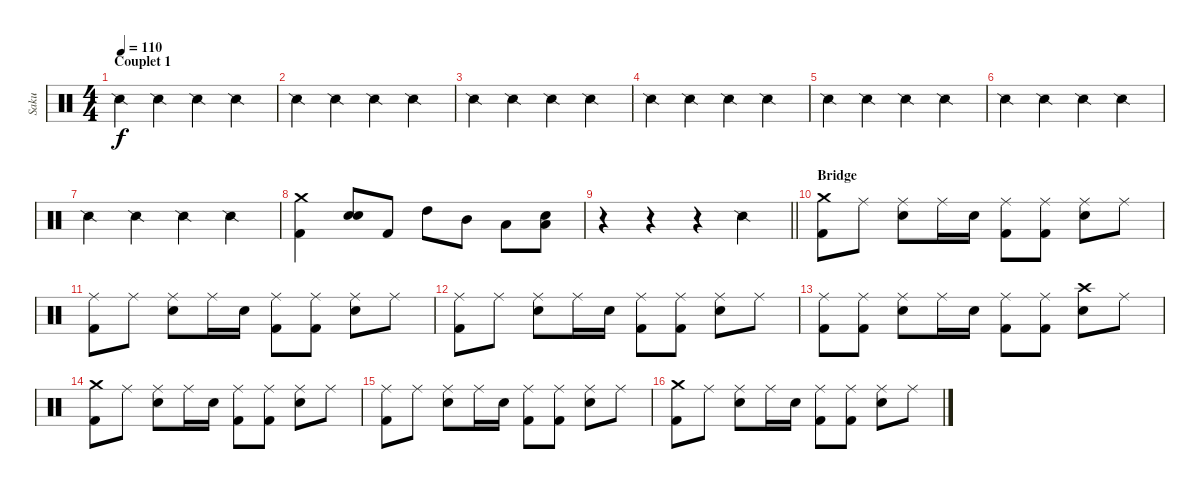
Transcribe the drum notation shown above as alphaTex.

\track ("Saku" "Saku") {instrument percussion}
\staff {score}
\articulation defaults
\ts (4 4)
\section ("" "Couplet 1")
\tempo 110
\clef neutral
\ks c "Snare (side stick) 2".4{dy f} "Snare (side stick) 2".4 "Snare (side stick) 2".4 "Snare (side stick) 2".4
|
"Snare (side stick) 2".4 "Snare (side stick) 2".4 "Snare (side stick) 2".4 "Snare (side stick) 2".4 |
"Snare (side stick) 2".4 "Snare (side stick) 2".4 "Snare (side stick) 2".4 "Snare (side stick) 2".4 |
"Snare (side stick) 2".4 "Snare (side stick) 2".4 "Snare (side stick) 2".4 "Snare (side stick) 2".4 |
"Snare (side stick) 2".4 "Snare (side stick) 2".4 "Snare (side stick) 2".4 "Snare (side stick) 2".4 |
"Snare (side stick) 2".4 "Snare (side stick) 2".4 "Snare (side stick) 2".4 "Snare (side stick) 2".4 |
"Snare (side stick) 2".4 "Snare (side stick) 2".4 "Snare (side stick) 2".4 "Snare (side stick) 2".4 |
("Crash medium (hit)" "Kick (hit) 2").4 ("Electric Snare (hit)" "Electric Snare (hit)").8{bu 60} "Kick (hit) 2".8 "High Tom (hit)".8 "Mid Tom (hit)".8 "Low Tom (hit)".8 ("Electric Snare (hit)" "Low Floor Tom (hit)").8 |
\barLineRight lightlight
r.4 r.4 r.4 "Snare (side stick) 2".4 |
\section ("" "Bridge")
("Crash medium (hit)" "Kick (hit) 2").8 "Ride (middle)".8 ("Ride (middle)" "Electric Snare (hit)").8 "Ride (middle)".16 "Electric Snare (hit)".16 ("Ride (middle)" "Kick (hit) 2").8 ("Ride (middle)" "Kick (hit) 2").8 ("Ride (middle)" "Electric Snare (hit)").8 "Ride (middle)".8 |
("Ride (middle)" "Kick (hit) 2").8 "Ride (middle)".8 ("Ride (middle)" "Electric Snare (hit)").8 "Ride (middle)".16 "Electric Snare (hit)".16 ("Ride (middle)" "Kick (hit) 2").8 ("Ride (middle)" "Kick (hit) 2").8 ("Ride (middle)" "Electric Snare (hit)").8 "Ride (middle)".8 |
("Ride (middle)" "Kick (hit) 2").8 "Ride (middle)".8 ("Ride (middle)" "Electric Snare (hit)").8 "Ride (middle)".16 "Electric Snare (hit)".16 ("Ride (middle)" "Kick (hit) 2").8 ("Ride (middle)" "Kick (hit) 2").8 ("Ride (middle)" "Electric Snare (hit)").8 "Ride (middle)".8 |
("Ride (middle)" "Kick (hit) 2").8 ("Ride (middle)" "Kick (hit) 2").8 ("Ride (middle)" "Electric Snare (hit)").8 "Ride (middle)".16 "Electric Snare (hit)".16 ("Ride (middle)" "Kick (hit) 2").8 ("Ride (middle)" "Kick (hit) 2").8 ("Crash high (hit)" "Electric Snare (hit)").8 "Ride (middle)".8 |
("Crash medium (hit)" "Kick (hit) 2").8 "Ride (middle)".8 ("Ride (middle)" "Electric Snare (hit)").8 "Ride (middle)".16 "Electric Snare (hit)".16 ("Ride (middle)" "Kick (hit) 2").8 ("Ride (middle)" "Kick (hit) 2").8 ("Ride (middle)" "Electric Snare (hit)").8 "Ride (middle)".8 |
("Ride (middle)" "Kick (hit) 2").8 "Ride (middle)".8 ("Ride (middle)" "Electric Snare (hit)").8 "Ride (middle)".16 "Electric Snare (hit)".16 ("Ride (middle)" "Kick (hit) 2").8 ("Ride (middle)" "Kick (hit) 2").8 ("Ride (middle)" "Electric Snare (hit)").8 "Ride (middle)".8 |
("Crash medium (hit)" "Kick (hit) 2").8 "Ride (middle)".8 ("Ride (middle)" "Electric Snare (hit)").8 "Ride (middle)".16 "Electric Snare (hit)".16 ("Ride (middle)" "Kick (hit) 2").8 ("Ride (middle)" "Kick (hit) 2").8 ("Ride (middle)" "Electric Snare (hit)").8 "Ride (middle)".8
